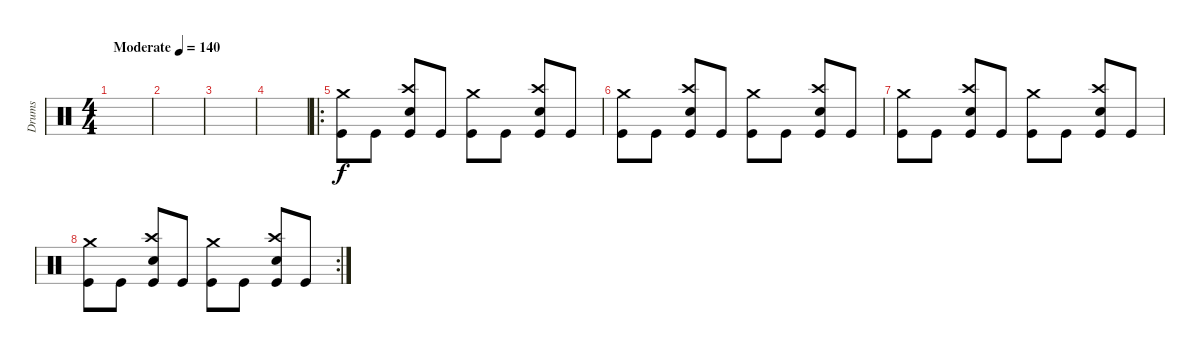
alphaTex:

\track ("Drums" "Drums") {instrument percussion}
\staff {score}
\articulation defaults
\ts (4 4)
\tempo (140 "Moderate")
\clef neutral
\ks c
|
|
|
|
\ro
("Crash medium (hit)" "Kick (hit)").8 "Kick (hit)".8 ("Crash high (hit)" "Snare (hit) 2" "Kick (hit)").8 "Kick (hit)".8 ("Crash medium (hit)" "Kick (hit)").8 "Kick (hit)".8 ("Crash high (hit)" "Snare (hit) 2" "Kick (hit)").8 "Kick (hit)".8 |
("Crash medium (hit)" "Kick (hit)").8 "Kick (hit)".8 ("Crash high (hit)" "Snare (hit) 2" "Kick (hit)").8 "Kick (hit)".8 ("Crash medium (hit)" "Kick (hit)").8 "Kick (hit)".8 ("Crash high (hit)" "Snare (hit) 2" "Kick (hit)").8 "Kick (hit)".8 |
("Crash medium (hit)" "Kick (hit)").8 "Kick (hit)".8 ("Crash high (hit)" "Snare (hit) 2" "Kick (hit)").8 "Kick (hit)".8 ("Crash medium (hit)" "Kick (hit)").8 "Kick (hit)".8 ("Crash high (hit)" "Snare (hit) 2" "Kick (hit)").8 "Kick (hit)".8 |
\rc 2
("Crash medium (hit)" "Kick (hit)").8 "Kick (hit)".8 ("Crash high (hit)" "Snare (hit) 2" "Kick (hit)").8 "Kick (hit)".8 ("Crash medium (hit)" "Kick (hit)").8 "Kick (hit)".8 ("Crash high (hit)" "Snare (hit) 2" "Kick (hit)").8 "Kick (hit)".8
